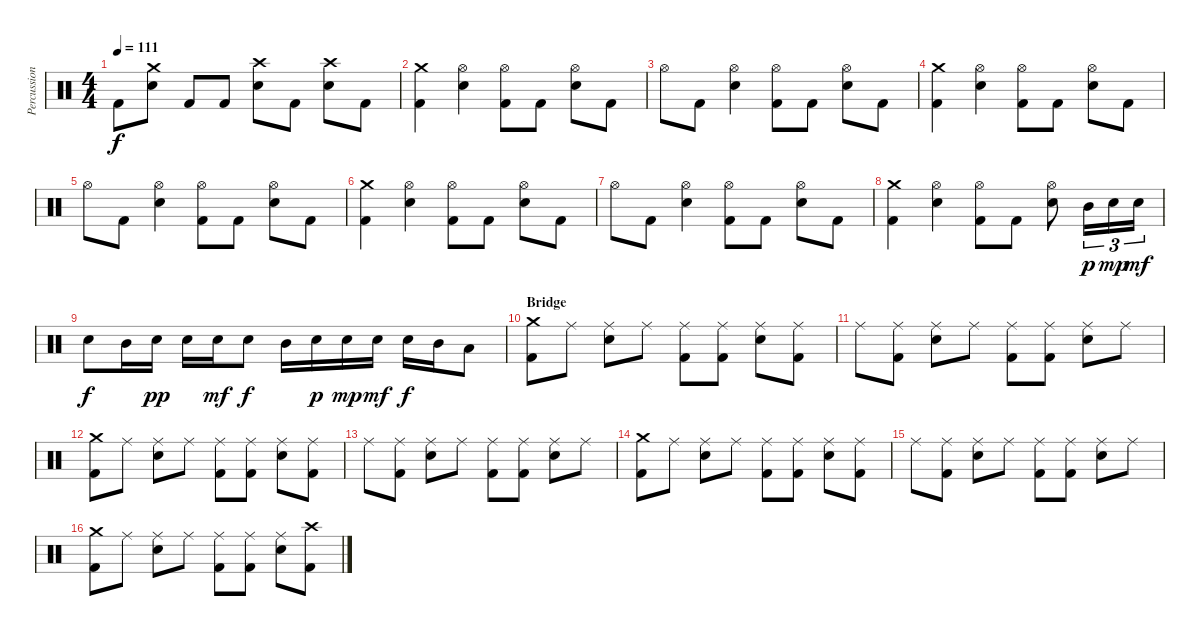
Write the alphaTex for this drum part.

\track ("Percussion" "Percussion") {instrument percussion}
\staff {score}
\articulation defaults
\ts (4 4)
\tempo 111
\clef neutral
\ks c "Kick (hit) 2".8{dy f}
("Crash medium (hit)" "Electric Snare (hit)").8 "Kick (hit) 2".8 "Kick (hit) 2".8 ("Crash high (hit)" "Electric Snare (hit)").8 "Kick (hit) 2".8 ("Crash high (hit)" "Electric Snare (hit)").8 "Kick (hit) 2".8 |
("Crash medium (hit)" "Kick (hit) 2").4 ("Hi-Hat (open)" "Electric Snare (hit)").4 ("Hi-Hat (open)" "Kick (hit) 2").8 "Kick (hit) 2".8 ("Hi-Hat (open)" "Electric Snare (hit)").8 "Kick (hit) 2".8 |
"Hi-Hat (open)".8 "Kick (hit) 2".8 ("Hi-Hat (open)" "Electric Snare (hit)").4 ("Hi-Hat (open)" "Kick (hit) 2").8 "Kick (hit) 2".8 ("Hi-Hat (open)" "Electric Snare (hit)").8 "Kick (hit) 2".8 |
("Crash medium (hit)" "Kick (hit) 2").4 ("Hi-Hat (open)" "Electric Snare (hit)").4 ("Hi-Hat (open)" "Kick (hit) 2").8 "Kick (hit) 2".8 ("Hi-Hat (open)" "Electric Snare (hit)").8 "Kick (hit) 2".8 |
"Hi-Hat (open)".8 "Kick (hit) 2".8 ("Hi-Hat (open)" "Electric Snare (hit)").4 ("Hi-Hat (open)" "Kick (hit) 2").8 "Kick (hit) 2".8 ("Hi-Hat (open)" "Electric Snare (hit)").8 "Kick (hit) 2".8 |
("Crash medium (hit)" "Kick (hit) 2").4 ("Hi-Hat (open)" "Electric Snare (hit)").4 ("Hi-Hat (open)" "Kick (hit) 2").8 "Kick (hit) 2".8 ("Hi-Hat (open)" "Electric Snare (hit)").8 "Kick (hit) 2".8 |
"Hi-Hat (open)".8 "Kick (hit) 2".8 ("Hi-Hat (open)" "Electric Snare (hit)").4 ("Hi-Hat (open)" "Kick (hit) 2").8 "Kick (hit) 2".8 ("Hi-Hat (open)" "Electric Snare (hit)").8 "Kick (hit) 2".8 |
("Crash medium (hit)" "Kick (hit) 2").4 ("Hi-Hat (open)" "Electric Snare (hit)").4 ("Hi-Hat (open)" "Kick (hit) 2").8 "Kick (hit) 2".8 ("Hi-Hat (open)" "Electric Snare (hit)").8 "Mid Tom (hit)".16{tu (3 2) dy p} "Electric Snare (hit)".16{tu (3 2) dy mp} "Electric Snare (hit)".16{tu (3 2) dy mf} |
"Electric Snare (hit)".8{dy f} "Mid Tom (hit)".16 "Electric Snare (hit)".16{dy pp} "Electric Snare (hit)".16 "Electric Snare (hit)".16{dy mf} "Electric Snare (hit)".8{dy f} "Mid Tom (hit)".16 "Electric Snare (hit)".16{dy p} "Electric Snare (hit)".16{dy mp} "Electric Snare (hit)".16{dy mf} "Electric Snare (hit)".16{dy f} "Mid Tom (hit)".16 "Low Floor Tom (hit)".8 |
\section ("" "Bridge")
("Crash medium (hit)" "Kick (hit) 2").8 "Ride (middle)".8 ("Ride (middle)" "Electric Snare (hit)").8 "Ride (middle)".8 ("Ride (middle)" "Kick (hit) 2").8 ("Ride (middle)" "Kick (hit) 2").8 ("Ride (middle)" "Electric Snare (hit)").8 ("Ride (middle)" "Kick (hit) 2").8 |
"Ride (middle)".8 ("Ride (middle)" "Kick (hit) 2").8 ("Ride (middle)" "Electric Snare (hit)").8 "Ride (middle)".8 ("Ride (middle)" "Kick (hit) 2").8 ("Ride (middle)" "Kick (hit) 2").8 ("Ride (middle)" "Electric Snare (hit)").8 "Ride (middle)".8 |
("Crash medium (hit)" "Kick (hit) 2").8 "Ride (middle)".8 ("Ride (middle)" "Electric Snare (hit)").8 "Ride (middle)".8 ("Ride (middle)" "Kick (hit) 2").8 ("Ride (middle)" "Kick (hit) 2").8 ("Ride (middle)" "Electric Snare (hit)").8 ("Ride (middle)" "Kick (hit) 2").8 |
"Ride (middle)".8 ("Ride (middle)" "Kick (hit) 2").8 ("Ride (middle)" "Electric Snare (hit)").8 "Ride (middle)".8 ("Ride (middle)" "Kick (hit) 2").8 ("Ride (middle)" "Kick (hit) 2").8 ("Ride (middle)" "Electric Snare (hit)").8 "Ride (middle)".8 |
("Crash medium (hit)" "Kick (hit) 2").8 "Ride (middle)".8 ("Ride (middle)" "Electric Snare (hit)").8 "Ride (middle)".8 ("Ride (middle)" "Kick (hit) 2").8 ("Ride (middle)" "Kick (hit) 2").8 ("Ride (middle)" "Electric Snare (hit)").8 ("Ride (middle)" "Kick (hit) 2").8 |
"Ride (middle)".8 ("Ride (middle)" "Kick (hit) 2").8 ("Ride (middle)" "Electric Snare (hit)").8 "Ride (middle)".8 ("Ride (middle)" "Kick (hit) 2").8 ("Ride (middle)" "Kick (hit) 2").8 ("Ride (middle)" "Electric Snare (hit)").8 "Ride (middle)".8 |
("Crash medium (hit)" "Kick (hit) 2").8 "Ride (middle)".8 ("Ride (middle)" "Electric Snare (hit)").8 "Ride (middle)".8 ("Ride (middle)" "Kick (hit) 2").8 ("Ride (middle)" "Kick (hit) 2").8 ("Ride (middle)" "Electric Snare (hit)").8 ("Crash high (hit)" "Kick (hit) 2").8
